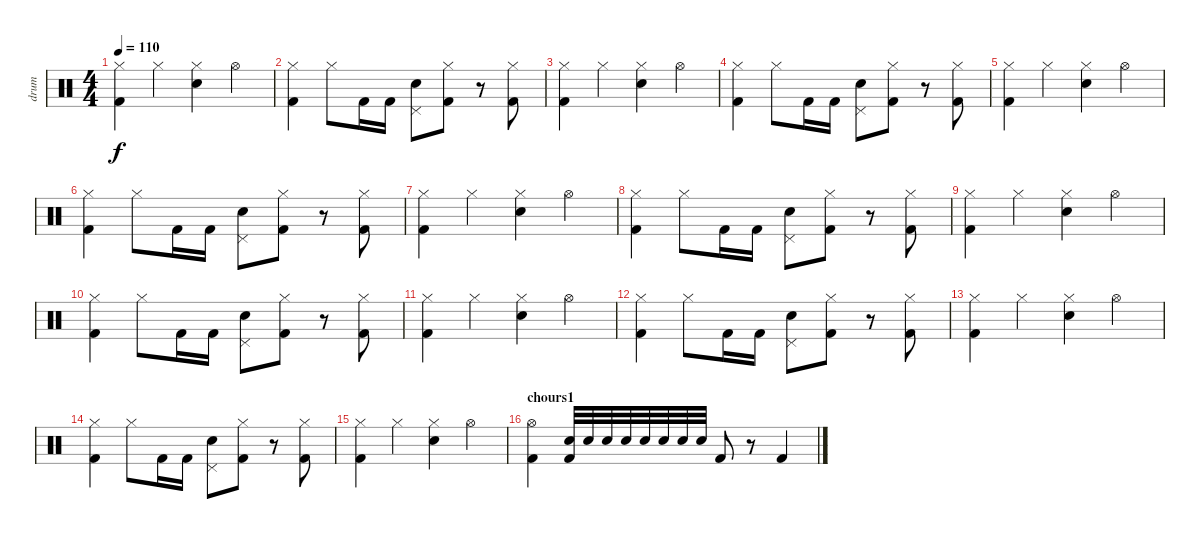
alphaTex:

\track ("drum" "drum") {instrument percussion}
\staff {score}
\articulation defaults
\ts (4 4)
\tempo 110
\clef neutral
\ks c
("Hi-Hat (closed)" "Kick (hit) 2").4{dy f} "Hi-Hat (closed)".4 ("Hi-Hat (closed)" "Electric Snare (hit)").4 "Hi-Hat (open)".4 |
("Hi-Hat (closed)" "Kick (hit) 2").4 "Hi-Hat (closed)".8 "Kick (hit) 2".16 "Kick (hit) 2".16 ("Pedal Hi-Hat (hit)" "Electric Snare (hit)").8 ("Hi-Hat (closed)" "Kick (hit) 2").8 r.8 ("Hi-Hat (closed)" "Kick (hit) 2").8 |
("Hi-Hat (closed)" "Kick (hit) 2").4 "Hi-Hat (closed)".4 ("Hi-Hat (closed)" "Electric Snare (hit)").4 "Hi-Hat (open)".4 |
("Hi-Hat (closed)" "Kick (hit) 2").4 "Hi-Hat (closed)".8 "Kick (hit) 2".16 "Kick (hit) 2".16 ("Pedal Hi-Hat (hit)" "Electric Snare (hit)").8 ("Hi-Hat (closed)" "Kick (hit) 2").8 r.8 ("Hi-Hat (closed)" "Kick (hit) 2").8 |
("Hi-Hat (closed)" "Kick (hit) 2").4 "Hi-Hat (closed)".4 ("Hi-Hat (closed)" "Electric Snare (hit)").4 "Hi-Hat (open)".4 |
("Hi-Hat (closed)" "Kick (hit) 2").4 "Hi-Hat (closed)".8 "Kick (hit) 2".16 "Kick (hit) 2".16 ("Pedal Hi-Hat (hit)" "Electric Snare (hit)").8 ("Hi-Hat (closed)" "Kick (hit) 2").8 r.8 ("Hi-Hat (closed)" "Kick (hit) 2").8 |
("Hi-Hat (closed)" "Kick (hit) 2").4 "Hi-Hat (closed)".4 ("Hi-Hat (closed)" "Electric Snare (hit)").4 "Hi-Hat (open)".4 |
("Hi-Hat (closed)" "Kick (hit) 2").4 "Hi-Hat (closed)".8 "Kick (hit) 2".16 "Kick (hit) 2".16 ("Pedal Hi-Hat (hit)" "Electric Snare (hit)").8 ("Hi-Hat (closed)" "Kick (hit) 2").8 r.8 ("Hi-Hat (closed)" "Kick (hit) 2").8 |
("Hi-Hat (closed)" "Kick (hit) 2").4 "Hi-Hat (closed)".4 ("Hi-Hat (closed)" "Electric Snare (hit)").4 "Hi-Hat (open)".4 |
("Hi-Hat (closed)" "Kick (hit) 2").4 "Hi-Hat (closed)".8 "Kick (hit) 2".16 "Kick (hit) 2".16 ("Pedal Hi-Hat (hit)" "Electric Snare (hit)").8 ("Hi-Hat (closed)" "Kick (hit) 2").8 r.8 ("Hi-Hat (closed)" "Kick (hit) 2").8 |
("Hi-Hat (closed)" "Kick (hit) 2").4 "Hi-Hat (closed)".4 ("Hi-Hat (closed)" "Electric Snare (hit)").4 "Hi-Hat (open)".4 |
("Hi-Hat (closed)" "Kick (hit) 2").4 "Hi-Hat (closed)".8 "Kick (hit) 2".16 "Kick (hit) 2".16 ("Pedal Hi-Hat (hit)" "Electric Snare (hit)").8 ("Hi-Hat (closed)" "Kick (hit) 2").8 r.8 ("Hi-Hat (closed)" "Kick (hit) 2").8 |
("Hi-Hat (closed)" "Kick (hit) 2").4 "Hi-Hat (closed)".4 ("Hi-Hat (closed)" "Electric Snare (hit)").4 "Hi-Hat (open)".4 |
("Hi-Hat (closed)" "Kick (hit) 2").4 "Hi-Hat (closed)".8 "Kick (hit) 2".16 "Kick (hit) 2".16 ("Pedal Hi-Hat (hit)" "Electric Snare (hit)").8 ("Hi-Hat (closed)" "Kick (hit) 2").8 r.8 ("Hi-Hat (closed)" "Kick (hit) 2").8 |
("Hi-Hat (closed)" "Kick (hit) 2").4 "Hi-Hat (closed)".4 ("Hi-Hat (closed)" "Electric Snare (hit)").4 "Hi-Hat (open)".4 |
\section ("" "chours1")
("Hi-Hat (open)" "Kick (hit) 2").4 ("Electric Snare (hit)" "Kick (hit) 2").32 "Electric Snare (hit)".32 "Electric Snare (hit)".32 "Electric Snare (hit)".32 "Electric Snare (hit)".32 "Electric Snare (hit)".32 "Electric Snare (hit)".32 "Electric Snare (hit)".32 "Kick (hit) 2".8 r.8 "Kick (hit) 2".4
